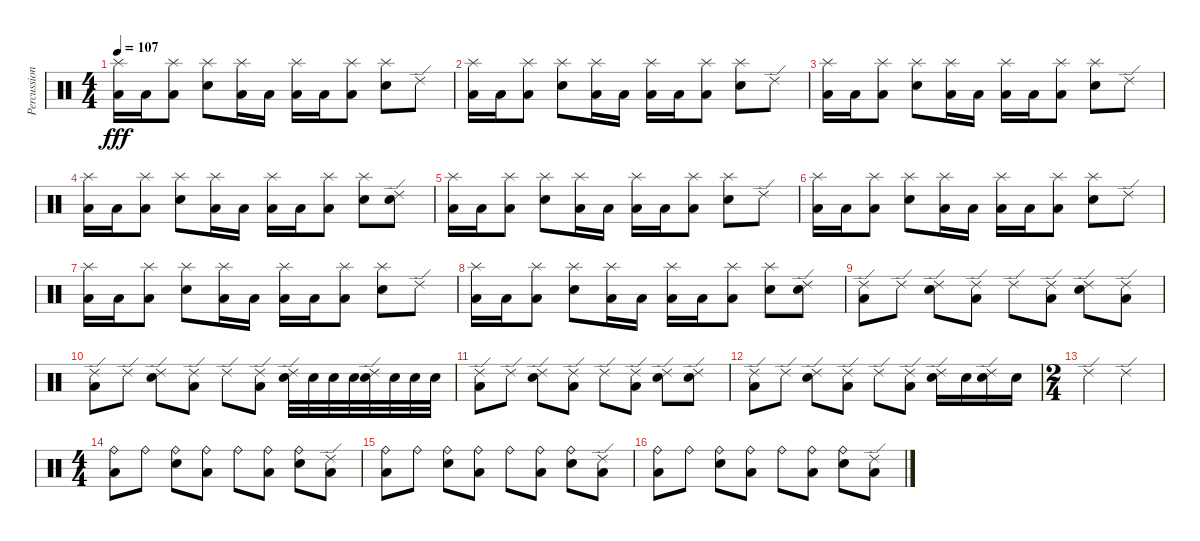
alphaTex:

\track ("Percussions" "Percussion") {instrument percussion}
\staff {score}
\articulation defaults
\ts (4 4)
\tempo 107
\clef neutral
\ks c
("Splash (hit)" "Low Floor Tom (hit)").16{dy fff} "Low Floor Tom (hit)".16 ("Splash (hit)" "Low Floor Tom (hit)").8 ("Splash (hit)" "Electric Snare (hit)").8 ("Splash (hit)" "Low Floor Tom (hit)").16 "Low Floor Tom (hit)".16 ("Splash (hit)" "Low Floor Tom (hit)").16 "Low Floor Tom (hit)".16 ("Splash (hit)" "Low Floor Tom (hit)").8 ("Splash (hit)" "Electric Snare (hit)").8 "Ride (edge) 2".8 |
("Splash (hit)" "Low Floor Tom (hit)").16 "Low Floor Tom (hit)".16 ("Splash (hit)" "Low Floor Tom (hit)").8 ("Splash (hit)" "Electric Snare (hit)").8 ("Splash (hit)" "Low Floor Tom (hit)").16 "Low Floor Tom (hit)".16 ("Splash (hit)" "Low Floor Tom (hit)").16 "Low Floor Tom (hit)".16 ("Splash (hit)" "Low Floor Tom (hit)").8 ("Splash (hit)" "Electric Snare (hit)").8 "Ride (edge) 2".8 |
("Splash (hit)" "Low Floor Tom (hit)").16 "Low Floor Tom (hit)".16 ("Splash (hit)" "Low Floor Tom (hit)").8 ("Splash (hit)" "Electric Snare (hit)").8 ("Splash (hit)" "Low Floor Tom (hit)").16 "Low Floor Tom (hit)".16 ("Splash (hit)" "Low Floor Tom (hit)").16 "Low Floor Tom (hit)".16 ("Splash (hit)" "Low Floor Tom (hit)").8 ("Splash (hit)" "Electric Snare (hit)").8 "Ride (edge) 2".8 |
("Splash (hit)" "Low Floor Tom (hit)").16 "Low Floor Tom (hit)".16 ("Splash (hit)" "Low Floor Tom (hit)").8 ("Splash (hit)" "Electric Snare (hit)").8 ("Splash (hit)" "Low Floor Tom (hit)").16 "Low Floor Tom (hit)".16 ("Splash (hit)" "Low Floor Tom (hit)").16 "Low Floor Tom (hit)".16 ("Splash (hit)" "Low Floor Tom (hit)").8 ("Splash (hit)" "Electric Snare (hit)").8 ("Electric Snare (hit)" "Ride (edge) 2").8 |
("Splash (hit)" "Low Floor Tom (hit)").16 "Low Floor Tom (hit)".16 ("Splash (hit)" "Low Floor Tom (hit)").8 ("Splash (hit)" "Electric Snare (hit)").8 ("Splash (hit)" "Low Floor Tom (hit)").16 "Low Floor Tom (hit)".16 ("Splash (hit)" "Low Floor Tom (hit)").16 "Low Floor Tom (hit)".16 ("Splash (hit)" "Low Floor Tom (hit)").8 ("Splash (hit)" "Electric Snare (hit)").8 "Ride (edge) 2".8 |
("Splash (hit)" "Low Floor Tom (hit)").16 "Low Floor Tom (hit)".16 ("Splash (hit)" "Low Floor Tom (hit)").8 ("Splash (hit)" "Electric Snare (hit)").8 ("Splash (hit)" "Low Floor Tom (hit)").16 "Low Floor Tom (hit)".16 ("Splash (hit)" "Low Floor Tom (hit)").16 "Low Floor Tom (hit)".16 ("Splash (hit)" "Low Floor Tom (hit)").8 ("Splash (hit)" "Electric Snare (hit)").8 "Ride (edge) 2".8 |
("Splash (hit)" "Low Floor Tom (hit)").16 "Low Floor Tom (hit)".16 ("Splash (hit)" "Low Floor Tom (hit)").8 ("Splash (hit)" "Electric Snare (hit)").8 ("Splash (hit)" "Low Floor Tom (hit)").16 "Low Floor Tom (hit)".16 ("Splash (hit)" "Low Floor Tom (hit)").16 "Low Floor Tom (hit)".16 ("Splash (hit)" "Low Floor Tom (hit)").8 ("Splash (hit)" "Electric Snare (hit)").8 "Ride (edge) 2".8 |
("Splash (hit)" "Low Floor Tom (hit)").16 "Low Floor Tom (hit)".16 ("Splash (hit)" "Low Floor Tom (hit)").8 ("Splash (hit)" "Electric Snare (hit)").8 ("Splash (hit)" "Low Floor Tom (hit)").16 "Low Floor Tom (hit)".16 ("Splash (hit)" "Low Floor Tom (hit)").16 "Low Floor Tom (hit)".16 ("Splash (hit)" "Low Floor Tom (hit)").8 ("Electric Snare (hit)" "Splash (hit)").8 ("Electric Snare (hit)" "Ride (edge) 2").8 |
("Low Floor Tom (hit)" "Ride (edge) 2").8 "Ride (edge) 2".8 ("Electric Snare (hit)" "Ride (edge) 2").8 ("Low Floor Tom (hit)" "Ride (edge) 2").8 "Ride (edge) 2".8 ("Low Floor Tom (hit)" "Ride (edge) 2").8 ("Electric Snare (hit)" "Ride (edge) 2").8 ("Low Floor Tom (hit)" "Ride (edge) 2").8 |
("Low Floor Tom (hit)" "Ride (edge) 2").8 "Ride (edge) 2".8 ("Electric Snare (hit)" "Ride (edge) 2").8 ("Low Floor Tom (hit)" "Ride (edge) 2").8 "Ride (edge) 2".8 ("Low Floor Tom (hit)" "Ride (edge) 2").8 ("Electric Snare (hit)" "Ride (edge) 2").32 "Electric Snare (hit)".32 "Electric Snare (hit)".32 "Electric Snare (hit)".32 ("Electric Snare (hit)" "Ride (edge) 2").32 "Electric Snare (hit)".32 "Electric Snare (hit)".32 "Electric Snare (hit)".32 |
("Low Floor Tom (hit)" "Ride (edge) 2").8 "Ride (edge) 2".8 ("Electric Snare (hit)" "Ride (edge) 2").8 ("Low Floor Tom (hit)" "Ride (edge) 2").8 "Ride (edge) 2".8 ("Low Floor Tom (hit)" "Ride (edge) 2").8 ("Electric Snare (hit)" "Ride (edge) 2").8 ("Electric Snare (hit)" "Ride (edge) 2").8 |
("Low Floor Tom (hit)" "Ride (edge) 2").8 "Ride (edge) 2".8 ("Electric Snare (hit)" "Ride (edge) 2").8 ("Low Floor Tom (hit)" "Ride (edge) 2").8 "Ride (edge) 2".8 ("Low Floor Tom (hit)" "Ride (edge) 2").8 ("Electric Snare (hit)" "Ride (edge) 2").16 "Electric Snare (hit)".16 ("Electric Snare (hit)" "Ride (edge) 2").16 "Electric Snare (hit)".16 |
\ts (2 4)
"Ride (edge) 2".4 "Ride (edge) 2".4 |
\ts (4 4)
("Low Floor Tom (hit)" "Ride (bell)").8 "Ride (bell)".8 ("Electric Snare (hit)" "Ride (bell)").8 ("Low Floor Tom (hit)" "Ride (bell)").8 "Ride (bell)".8 ("Low Floor Tom (hit)" "Ride (bell)").8 ("Electric Snare (hit)" "Ride (bell)").8 ("Low Floor Tom (hit)" "Ride (edge) 2").8 |
("Low Floor Tom (hit)" "Ride (bell)").8 "Ride (bell)".8 ("Electric Snare (hit)" "Ride (bell)").8 ("Low Floor Tom (hit)" "Ride (bell)").8 "Ride (bell)".8 ("Low Floor Tom (hit)" "Ride (bell)").8 ("Electric Snare (hit)" "Ride (bell)").8 ("Low Floor Tom (hit)" "Ride (edge) 2").8 |
("Low Floor Tom (hit)" "Ride (bell)").8 "Ride (bell)".8 ("Electric Snare (hit)" "Ride (bell)").8 ("Low Floor Tom (hit)" "Ride (bell)").8 "Ride (bell)".8 ("Low Floor Tom (hit)" "Ride (bell)").8 ("Electric Snare (hit)" "Ride (bell)").8 ("Low Floor Tom (hit)" "Ride (edge) 2").8
